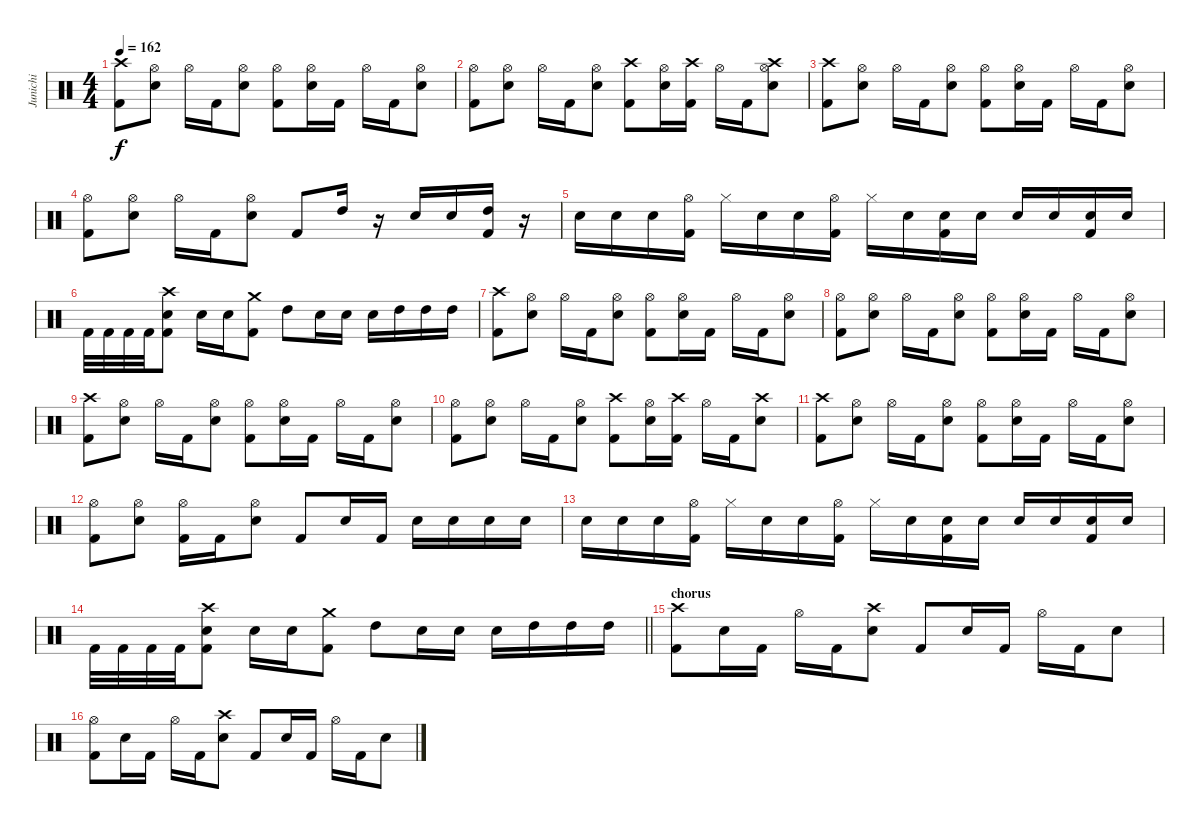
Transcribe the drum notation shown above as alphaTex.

\track ("Junichi" "Junichi") {instrument percussion}
\staff {score}
\articulation defaults
\ts (4 4)
\tempo 162
\clef neutral
\ks c
("Crash high (hit)" "Kick (hit) 2").8{dy f} ("Hi-Hat (open)" "Electric Snare (hit)").8 "Hi-Hat (open)".16 "Kick (hit) 2".16 ("Hi-Hat (open)" "Electric Snare (hit)").8 ("Hi-Hat (open)" "Kick (hit) 2").8 ("Hi-Hat (open)" "Electric Snare (hit)").16 "Kick (hit) 2".16 "Hi-Hat (open)".16 "Kick (hit) 2".16 ("Hi-Hat (open)" "Electric Snare (hit)").8 |
("Hi-Hat (open)" "Kick (hit) 2").8 ("Hi-Hat (open)" "Electric Snare (hit)").8 "Hi-Hat (open)".16 "Kick (hit) 2".16 ("Hi-Hat (open)" "Electric Snare (hit)").8 ("Crash high (hit)" "Kick (hit) 2").8 ("Hi-Hat (open)" "Electric Snare (hit)").16 ("Crash high (hit)" "Kick (hit) 2").16 "Hi-Hat (open)".16 "Kick (hit) 2".16 ("Crash high (hit)" "Hi-Hat (open)" "Electric Snare (hit)").8 |
("Crash high (hit)" "Kick (hit) 2").8 ("Hi-Hat (open)" "Electric Snare (hit)").8 "Hi-Hat (open)".16 "Kick (hit) 2".16 ("Hi-Hat (open)" "Electric Snare (hit)").8 ("Hi-Hat (open)" "Kick (hit) 2").8 ("Hi-Hat (open)" "Electric Snare (hit)").16 "Kick (hit) 2".16 "Hi-Hat (open)".16 "Kick (hit) 2".16 ("Hi-Hat (open)" "Electric Snare (hit)").8 |
("Hi-Hat (open)" "Kick (hit) 2").8 ("Hi-Hat (open)" "Electric Snare (hit)").8 "Hi-Hat (open)".16 "Kick (hit) 2".16 ("Hi-Hat (open)" "Electric Snare (hit)").8 "Kick (hit) 2".8 "High Tom (hit)".16 r.16 "Electric Snare (hit)".16 "Electric Snare (hit)".16 ("High Tom (hit)" "Kick (hit) 2").16 r.16 |
"Electric Snare (hit)".16 "Electric Snare (hit)".16 "Electric Snare (hit)".16 ("Hi-Hat (open)" "Kick (hit) 2").16 "Hi-Hat (closed)".16 "Electric Snare (hit)".16 "Electric Snare (hit)".16 ("Hi-Hat (open)" "Kick (hit) 2").16 "Hi-Hat (closed)".16 "Electric Snare (hit)".16 ("Electric Snare (hit)" "Kick (hit) 2").16 "Electric Snare (hit)".16 "Electric Snare (hit)".16 "Electric Snare (hit)".16 ("Electric Snare (hit)" "Kick (hit) 2").16 "Electric Snare (hit)".16 |
"Kick (hit) 2".32 "Kick (hit) 2".32 "Kick (hit) 2".32 "Kick (hit) 2".32 ("Crash high (hit)" "Electric Snare (hit)" "Kick (hit) 2").8 "Electric Snare (hit)".16 "Electric Snare (hit)".16 ("Crash medium (hit)" "Kick (hit) 2").8 "High Tom (hit)".8 "Electric Snare (hit)".16 "Electric Snare (hit)".16 "Electric Snare (hit)".16 "High Tom (hit)".16 "High Tom (hit)".16 "High Tom (hit)".16 |
("Crash high (hit)" "Kick (hit) 2").8 ("Hi-Hat (open)" "Electric Snare (hit)").8 "Hi-Hat (open)".16 "Kick (hit) 2".16 ("Hi-Hat (open)" "Electric Snare (hit)").8 ("Hi-Hat (open)" "Kick (hit) 2").8 ("Hi-Hat (open)" "Electric Snare (hit)").16 "Kick (hit) 2".16 "Hi-Hat (open)".16 "Kick (hit) 2".16 ("Hi-Hat (open)" "Electric Snare (hit)").8 |
("Hi-Hat (open)" "Kick (hit) 2").8 ("Hi-Hat (open)" "Electric Snare (hit)").8 "Hi-Hat (open)".16 "Kick (hit) 2".16 ("Hi-Hat (open)" "Electric Snare (hit)").8 ("Hi-Hat (open)" "Kick (hit) 2").8 ("Hi-Hat (open)" "Electric Snare (hit)").16 "Kick (hit) 2".16 "Hi-Hat (open)".16 "Kick (hit) 2".16 ("Hi-Hat (open)" "Electric Snare (hit)").8 |
("Crash high (hit)" "Kick (hit) 2").8 ("Hi-Hat (open)" "Electric Snare (hit)").8 "Hi-Hat (open)".16 "Kick (hit) 2".16 ("Hi-Hat (open)" "Electric Snare (hit)").8 ("Hi-Hat (open)" "Kick (hit) 2").8 ("Hi-Hat (open)" "Electric Snare (hit)").16 "Kick (hit) 2".16 "Hi-Hat (open)".16 "Kick (hit) 2".16 ("Hi-Hat (open)" "Electric Snare (hit)").8 |
("Hi-Hat (open)" "Kick (hit) 2").8 ("Hi-Hat (open)" "Electric Snare (hit)").8 "Hi-Hat (open)".16 "Kick (hit) 2".16 ("Hi-Hat (open)" "Electric Snare (hit)").8 ("Crash high (hit)" "Kick (hit) 2").8 ("Hi-Hat (open)" "Electric Snare (hit)").16 ("Crash high (hit)" "Kick (hit) 2").16 "Hi-Hat (open)".16 "Kick (hit) 2".16 ("Crash high (hit)" "Electric Snare (hit)").8 |
("Crash high (hit)" "Kick (hit) 2").8 ("Hi-Hat (open)" "Electric Snare (hit)").8 "Hi-Hat (open)".16 "Kick (hit) 2".16 ("Hi-Hat (open)" "Electric Snare (hit)").8 ("Hi-Hat (open)" "Kick (hit) 2").8 ("Hi-Hat (open)" "Electric Snare (hit)").16 "Kick (hit) 2".16 "Hi-Hat (open)".16 "Kick (hit) 2".16 ("Hi-Hat (open)" "Electric Snare (hit)").8 |
("Hi-Hat (open)" "Kick (hit) 2").8 ("Hi-Hat (open)" "Electric Snare (hit)").8 ("Hi-Hat (open)" "Kick (hit) 2").16 "Kick (hit) 2".16 ("Hi-Hat (open)" "Electric Snare (hit)").8 "Kick (hit) 2".8 "Electric Snare (hit)".16 "Kick (hit) 2".16 "Electric Snare (hit)".16 "Electric Snare (hit)".16 "Electric Snare (hit)".16 "Electric Snare (hit)".16 |
"Electric Snare (hit)".16 "Electric Snare (hit)".16 "Electric Snare (hit)".16 ("Hi-Hat (open)" "Kick (hit) 2").16 "Hi-Hat (closed)".16 "Electric Snare (hit)".16 "Electric Snare (hit)".16 ("Hi-Hat (open)" "Kick (hit) 2").16 "Hi-Hat (closed)".16 "Electric Snare (hit)".16 ("Electric Snare (hit)" "Kick (hit) 2").16 "Electric Snare (hit)".16 "Electric Snare (hit)".16 "Electric Snare (hit)".16 ("Electric Snare (hit)" "Kick (hit) 2").16 "Electric Snare (hit)".16 |
\barLineRight lightlight "Kick (hit) 2".32 "Kick (hit) 2".32 "Kick (hit) 2".32 "Kick (hit) 2".32
("Crash high (hit)" "Electric Snare (hit)" "Kick (hit) 2").8 "Electric Snare (hit)".16 "Electric Snare (hit)".16 ("Crash medium (hit)" "Kick (hit) 2").8 "High Tom (hit)".8 "Electric Snare (hit)".16 "Electric Snare (hit)".16 "Electric Snare (hit)".16 "High Tom (hit)".16 "High Tom (hit)".16 "High Tom (hit)".16 |
\section ("" "chorus")
("Crash high (hit)" "Kick (hit) 2").8 "Electric Snare (hit)".16 "Kick (hit) 2".16 "Hi-Hat (open)".16 "Kick (hit) 2".16 ("Crash high (hit)" "Electric Snare (hit)").8 "Kick (hit) 2".8 "Electric Snare (hit)".16 "Kick (hit) 2".16 "Hi-Hat (open)".16 "Kick (hit) 2".16 "Electric Snare (hit)".8 |
("Hi-Hat (open)" "Kick (hit) 2").8 "Electric Snare (hit)".16 "Kick (hit) 2".16 "Hi-Hat (open)".16 "Kick (hit) 2".16 ("Crash high (hit)" "Electric Snare (hit)").8 "Kick (hit) 2".8 "Electric Snare (hit)".16 "Kick (hit) 2".16 "Hi-Hat (open)".16 "Kick (hit) 2".16 "Electric Snare (hit)".8
